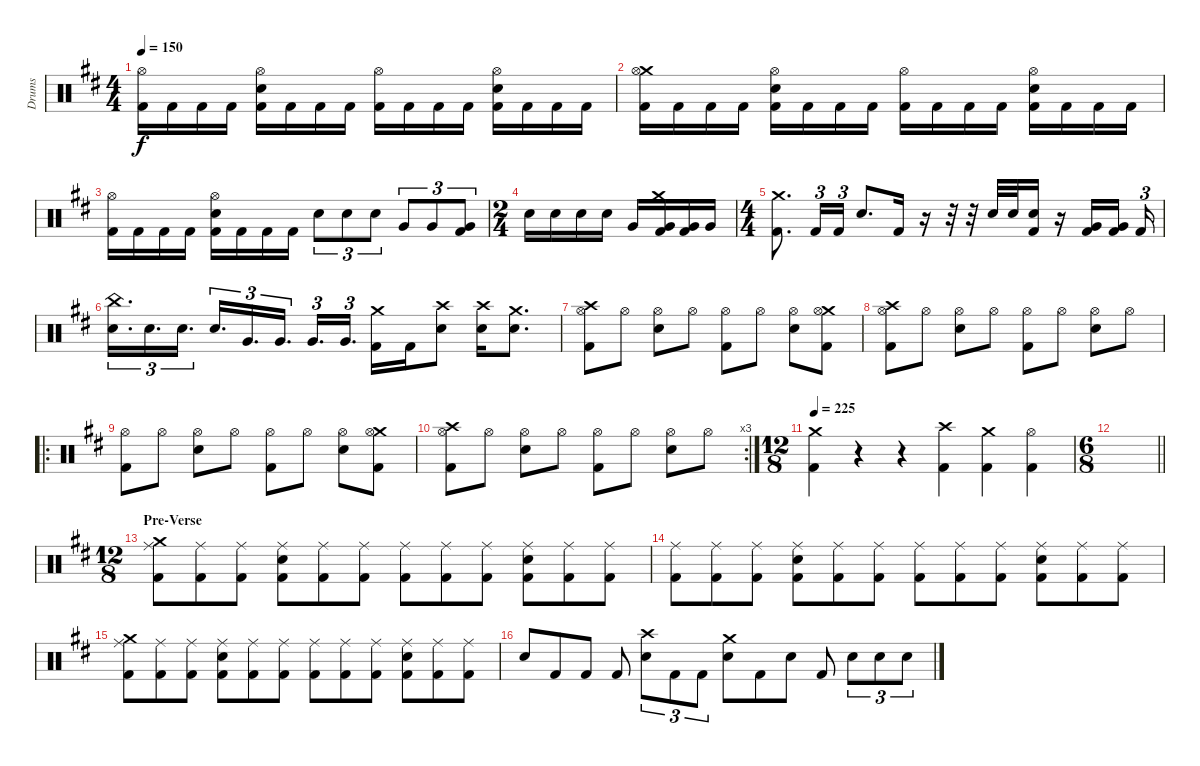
\track ("Drums" "Drums") {instrument percussion}
\staff {score}
\articulation defaults
\ts (4 4)
\tempo 150
\clef neutral
\ks d
("Hi-Hat (open)" "Kick (hit) 2").16{dy f} "Kick (hit) 2".16 "Kick (hit) 2".16 "Kick (hit) 2".16 ("Hi-Hat (open)" "Electric Snare (hit)" "Kick (hit) 2").16 "Kick (hit) 2".16 "Kick (hit) 2".16 "Kick (hit) 2".16 ("Hi-Hat (open)" "Kick (hit) 2").16 "Kick (hit) 2".16 "Kick (hit) 2".16 "Kick (hit) 2".16 ("Hi-Hat (open)" "Electric Snare (hit)" "Kick (hit) 2").16 "Kick (hit) 2".16 "Kick (hit) 2".16 "Kick (hit) 2".16 |
("Crash medium (hit)" "Hi-Hat (open)" "Kick (hit) 2").16 "Kick (hit) 2".16 "Kick (hit) 2".16 "Kick (hit) 2".16 ("Hi-Hat (open)" "Electric Snare (hit)" "Kick (hit) 2").16 "Kick (hit) 2".16 "Kick (hit) 2".16 "Kick (hit) 2".16 ("Hi-Hat (open)" "Kick (hit) 2").16 "Kick (hit) 2".16 "Kick (hit) 2".16 "Kick (hit) 2".16 ("Hi-Hat (open)" "Electric Snare (hit)" "Kick (hit) 2").16 "Kick (hit) 2".16 "Kick (hit) 2".16 "Kick (hit) 2".16 |
("Hi-Hat (open)" "Kick (hit) 2").16 "Kick (hit) 2".16 "Kick (hit) 2".16 "Kick (hit) 2".16 ("Hi-Hat (open)" "Electric Snare (hit)" "Kick (hit) 2").16 "Kick (hit) 2".16 "Kick (hit) 2".16 "Kick (hit) 2".16 "Electric Snare (hit)".8{tu (3 2)} "Electric Snare (hit)".8{tu (3 2)} "Electric Snare (hit)".8{tu (3 2)} "Very Low Tom (hit)".8{tu (3 2)} "Very Low Tom (hit)".8{tu (3 2)} ("Very Low Tom (hit)" "Kick (hit) 2").8{tu (3 2)} |
\ts (2 4)
"Electric Snare (hit)".16 "Electric Snare (hit)".16 "Electric Snare (hit)".16 "Electric Snare (hit)".16 "Very Low Tom (hit)".16 ("Crash medium (hit)" "Very Low Tom (hit)" "Kick (hit) 2").16 ("Kick (hit) 2" "Very Low Tom (hit)").16 "Very Low Tom (hit)".16 |
\ts (4 4)
("Crash medium (hit)" "Kick (hit) 2").8{d} "Kick (hit) 2".16{tu (3 2)} "Kick (hit) 2".16{tu (3 2)} "Electric Snare (hit)".8{d} "Kick (hit) 2".16 r.16 r.32 r.32 "Electric Snare (hit)".32 "Electric Snare (hit)".32 ("Electric Snare (hit)" "Kick (hit) 2").16 r.16 ("Very Low Tom (hit)" "Kick (hit) 2").16 ("Very Low Tom (hit)" "Kick (hit) 2").16{beam splitsecondary} "Kick (hit) 2".16{tu (3 2)} |
("China (hit)" "Electric Snare (hit)").16{d tu (3 2)} "Electric Snare (hit)".16{d tu (3 2)} "Electric Snare (hit)".16{d tu (3 2)} "Electric Snare (hit)".16{d tu (3 2)} "Very Low Tom (hit)".16{d tu (3 2)} "Very Low Tom (hit)".16{d tu (3 2)} "Very Low Tom (hit)".16{d tu (3 2)} "Very Low Tom (hit)".16{d tu (3 2)} ("Crash medium (hit)" "Kick (hit) 2").16 "Kick (hit) 2".16 ("Crash high (hit)" "Electric Snare (hit)").8 ("Crash high (hit)" "Electric Snare (hit)").16 ("Crash medium (hit)" "Electric Snare (hit)").8{d} |
("Crash high (hit)" "Hi-Hat (open)" "Kick (hit) 2").8 "Hi-Hat (open)".8 ("Hi-Hat (open)" "Electric Snare (hit)").8 "Hi-Hat (open)".8 ("Hi-Hat (open)" "Kick (hit) 2").8 "Hi-Hat (open)".8 ("Hi-Hat (open)" "Electric Snare (hit)").8 ("Crash medium (hit)" "Hi-Hat (open)" "Kick (hit) 2").8 |
("Crash high (hit)" "Hi-Hat (open)" "Kick (hit) 2").8 "Hi-Hat (open)".8 ("Hi-Hat (open)" "Electric Snare (hit)").8 "Hi-Hat (open)".8 ("Hi-Hat (open)" "Kick (hit) 2").8 "Hi-Hat (open)".8 ("Hi-Hat (open)" "Electric Snare (hit)").8 "Hi-Hat (open)".8 |
\ro
("Hi-Hat (open)" "Kick (hit) 2").8 "Hi-Hat (open)".8 ("Hi-Hat (open)" "Electric Snare (hit)").8 "Hi-Hat (open)".8 ("Hi-Hat (open)" "Kick (hit) 2").8 "Hi-Hat (open)".8 ("Hi-Hat (open)" "Electric Snare (hit)").8 ("Crash medium (hit)" "Hi-Hat (open)" "Kick (hit) 2").8 |
\rc 3
("Crash high (hit)" "Hi-Hat (open)" "Kick (hit) 2").8 "Hi-Hat (open)".8 ("Hi-Hat (open)" "Electric Snare (hit)").8 "Hi-Hat (open)".8 ("Hi-Hat (open)" "Kick (hit) 2").8 "Hi-Hat (open)".8 ("Hi-Hat (open)" "Electric Snare (hit)").8 "Hi-Hat (open)".8 |
\ts (12 8)
\tempo 225
("Crash medium (hit)" "Kick (hit) 2").4 r.4 r.4 ("Crash high (hit)" "Kick (hit) 2").4 ("Crash medium (hit)" "Kick (hit) 2").4 ("Hi-Hat (open)" "Kick (hit) 2").4 |
\ts (6 8)
\barLineRight lightlight
|
\ts (12 8)
\section ("" "Pre-Verse")
("Crash medium (hit)" "Ride (middle)" "Kick (hit) 2").8 ("Ride (middle)" "Kick (hit) 2").8 ("Ride (middle)" "Kick (hit) 2").8 ("Ride (middle)" "Electric Snare (hit)" "Kick (hit) 2").8 ("Ride (middle)" "Kick (hit) 2").8 ("Ride (middle)" "Kick (hit) 2").8 ("Ride (middle)" "Kick (hit) 2").8 ("Ride (middle)" "Kick (hit) 2").8 ("Ride (middle)" "Kick (hit) 2").8 ("Ride (middle)" "Electric Snare (hit)" "Kick (hit) 2").8 ("Ride (middle)" "Kick (hit) 2").8 ("Ride (middle)" "Kick (hit) 2").8 |
("Ride (middle)" "Kick (hit) 2").8 ("Ride (middle)" "Kick (hit) 2").8 ("Ride (middle)" "Kick (hit) 2").8 ("Ride (middle)" "Electric Snare (hit)" "Kick (hit) 2").8 ("Ride (middle)" "Kick (hit) 2").8 ("Ride (middle)" "Kick (hit) 2").8 ("Ride (middle)" "Kick (hit) 2").8 ("Ride (middle)" "Kick (hit) 2").8 ("Ride (middle)" "Kick (hit) 2").8 ("Ride (middle)" "Electric Snare (hit)" "Kick (hit) 2").8 ("Ride (middle)" "Kick (hit) 2").8 ("Ride (middle)" "Kick (hit) 2").8 |
("Crash medium (hit)" "Ride (middle)" "Kick (hit) 2").8 ("Ride (middle)" "Kick (hit) 2").8 ("Ride (middle)" "Kick (hit) 2").8 ("Ride (middle)" "Electric Snare (hit)" "Kick (hit) 2").8 ("Ride (middle)" "Kick (hit) 2").8 ("Ride (middle)" "Kick (hit) 2").8 ("Ride (middle)" "Kick (hit) 2").8 ("Ride (middle)" "Kick (hit) 2").8 ("Ride (middle)" "Kick (hit) 2").8 ("Ride (middle)" "Electric Snare (hit)" "Kick (hit) 2").8 ("Ride (middle)" "Kick (hit) 2").8 ("Ride (middle)" "Kick (hit) 2").8 |
"Electric Snare (hit)".8 "Kick (hit) 2".8 "Kick (hit) 2".8 "Kick (hit) 2".8 ("Crash high (hit)" "Electric Snare (hit)").8{tu (3 2)} "Kick (hit) 2".8{tu (3 2)} "Kick (hit) 2".8{tu (3 2)} ("Crash medium (hit)" "Electric Snare (hit)").8 "Kick (hit) 2".8 "Electric Snare (hit)".8 "Kick (hit) 2".8 "Electric Snare (hit)".8{tu (3 2)} "Electric Snare (hit)".8{tu (3 2)} "Electric Snare (hit)".8{tu (3 2)}
